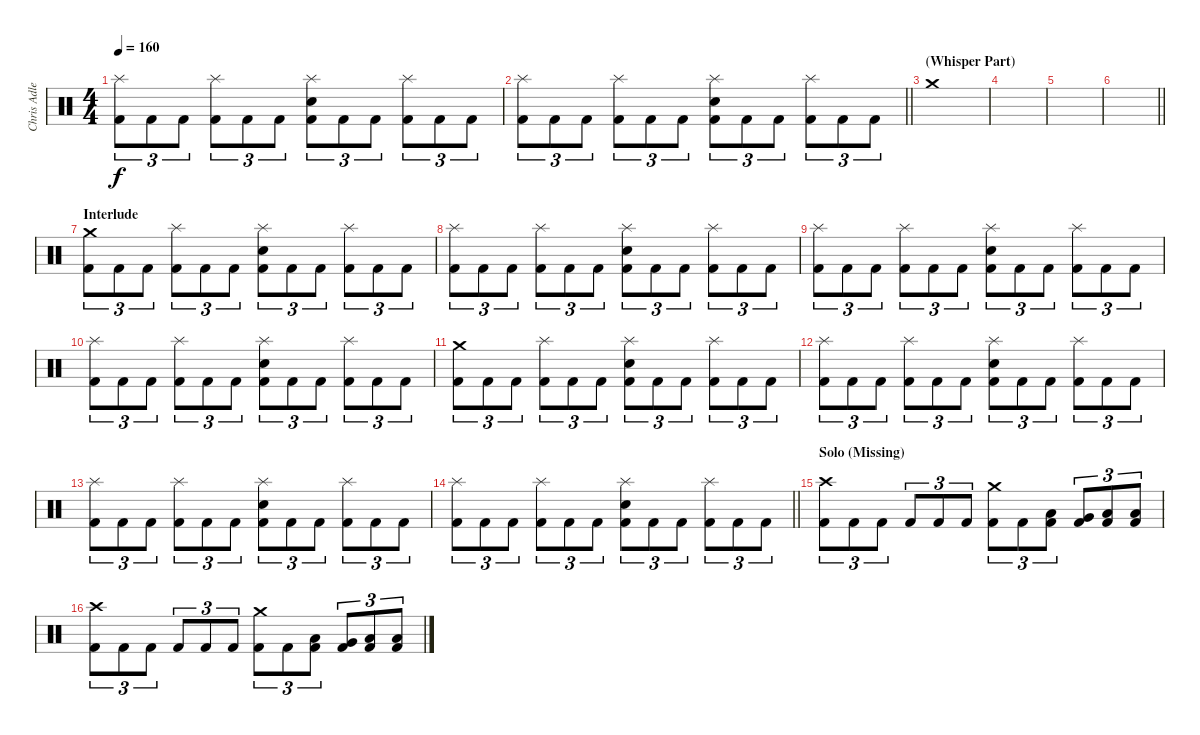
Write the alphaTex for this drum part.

\track ("Chris Adler" "Chris Adle") {instrument percussion}
\staff {score}
\articulation defaults
\ts (4 4)
\tempo 160
\clef neutral
\ks c
("Splash (hit)" "Kick (hit) 2").8{tu (3 2) dy f} "Kick (hit) 2".8{tu (3 2)} "Kick (hit) 2".8{tu (3 2)} ("Splash (hit)" "Kick (hit) 2").8{tu (3 2)} "Kick (hit) 2".8{tu (3 2)} "Kick (hit) 2".8{tu (3 2)} ("Splash (hit)" "Snare (hit) 2" "Kick (hit) 2").8{tu (3 2)} "Kick (hit) 2".8{tu (3 2)} "Kick (hit) 2".8{tu (3 2)} ("Splash (hit)" "Kick (hit) 2").8{tu (3 2)} "Kick (hit) 2".8{tu (3 2)} "Kick (hit) 2".8{tu (3 2)} |
\barLineRight lightlight
("Splash (hit)" "Kick (hit) 2").8{tu (3 2)} "Kick (hit) 2".8{tu (3 2)} "Kick (hit) 2".8{tu (3 2)} ("Splash (hit)" "Kick (hit) 2").8{tu (3 2)} "Kick (hit) 2".8{tu (3 2)} "Kick (hit) 2".8{tu (3 2)} ("Splash (hit)" "Snare (hit) 2" "Kick (hit) 2").8{tu (3 2)} "Kick (hit) 2".8{tu (3 2)} "Kick (hit) 2".8{tu (3 2)} ("Splash (hit)" "Kick (hit) 2").8{tu (3 2)} "Kick (hit) 2".8{tu (3 2)} "Kick (hit) 2".8{tu (3 2)} |
\section ("" "(Whisper Part)")
"Crash medium (hit)".1 |
|
|
\barLineRight lightlight
|
\section ("" "Interlude")
("Crash medium (hit)" "Kick (hit) 2").8{tu (3 2)} "Kick (hit) 2".8{tu (3 2)} "Kick (hit) 2".8{tu (3 2)} ("Splash (hit)" "Kick (hit) 2").8{tu (3 2)} "Kick (hit) 2".8{tu (3 2)} "Kick (hit) 2".8{tu (3 2)} ("Splash (hit)" "Snare (hit) 2" "Kick (hit) 2").8{tu (3 2)} "Kick (hit) 2".8{tu (3 2)} "Kick (hit) 2".8{tu (3 2)} ("Splash (hit)" "Kick (hit) 2").8{tu (3 2)} "Kick (hit) 2".8{tu (3 2)} "Kick (hit) 2".8{tu (3 2)} |
("Splash (hit)" "Kick (hit) 2").8{tu (3 2)} "Kick (hit) 2".8{tu (3 2)} "Kick (hit) 2".8{tu (3 2)} ("Splash (hit)" "Kick (hit) 2").8{tu (3 2)} "Kick (hit) 2".8{tu (3 2)} "Kick (hit) 2".8{tu (3 2)} ("Splash (hit)" "Snare (hit) 2" "Kick (hit) 2").8{tu (3 2)} "Kick (hit) 2".8{tu (3 2)} "Kick (hit) 2".8{tu (3 2)} ("Splash (hit)" "Kick (hit) 2").8{tu (3 2)} "Kick (hit) 2".8{tu (3 2)} "Kick (hit) 2".8{tu (3 2)} |
("Splash (hit)" "Kick (hit) 2").8{tu (3 2)} "Kick (hit) 2".8{tu (3 2)} "Kick (hit) 2".8{tu (3 2)} ("Splash (hit)" "Kick (hit) 2").8{tu (3 2)} "Kick (hit) 2".8{tu (3 2)} "Kick (hit) 2".8{tu (3 2)} ("Splash (hit)" "Snare (hit) 2" "Kick (hit) 2").8{tu (3 2)} "Kick (hit) 2".8{tu (3 2)} "Kick (hit) 2".8{tu (3 2)} ("Splash (hit)" "Kick (hit) 2").8{tu (3 2)} "Kick (hit) 2".8{tu (3 2)} "Kick (hit) 2".8{tu (3 2)} |
("Splash (hit)" "Kick (hit) 2").8{tu (3 2)} "Kick (hit) 2".8{tu (3 2)} "Kick (hit) 2".8{tu (3 2)} ("Splash (hit)" "Kick (hit) 2").8{tu (3 2)} "Kick (hit) 2".8{tu (3 2)} "Kick (hit) 2".8{tu (3 2)} ("Splash (hit)" "Snare (hit) 2" "Kick (hit) 2").8{tu (3 2)} "Kick (hit) 2".8{tu (3 2)} "Kick (hit) 2".8{tu (3 2)} ("Splash (hit)" "Kick (hit) 2").8{tu (3 2)} "Kick (hit) 2".8{tu (3 2)} "Kick (hit) 2".8{tu (3 2)} |
("Crash medium (hit)" "Kick (hit) 2").8{tu (3 2)} "Kick (hit) 2".8{tu (3 2)} "Kick (hit) 2".8{tu (3 2)} ("Splash (hit)" "Kick (hit) 2").8{tu (3 2)} "Kick (hit) 2".8{tu (3 2)} "Kick (hit) 2".8{tu (3 2)} ("Splash (hit)" "Snare (hit) 2" "Kick (hit) 2").8{tu (3 2)} "Kick (hit) 2".8{tu (3 2)} "Kick (hit) 2".8{tu (3 2)} ("Splash (hit)" "Kick (hit) 2").8{tu (3 2)} "Kick (hit) 2".8{tu (3 2)} "Kick (hit) 2".8{tu (3 2)} |
("Splash (hit)" "Kick (hit) 2").8{tu (3 2)} "Kick (hit) 2".8{tu (3 2)} "Kick (hit) 2".8{tu (3 2)} ("Splash (hit)" "Kick (hit) 2").8{tu (3 2)} "Kick (hit) 2".8{tu (3 2)} "Kick (hit) 2".8{tu (3 2)} ("Splash (hit)" "Snare (hit) 2" "Kick (hit) 2").8{tu (3 2)} "Kick (hit) 2".8{tu (3 2)} "Kick (hit) 2".8{tu (3 2)} ("Splash (hit)" "Kick (hit) 2").8{tu (3 2)} "Kick (hit) 2".8{tu (3 2)} "Kick (hit) 2".8{tu (3 2)} |
("Splash (hit)" "Kick (hit) 2").8{tu (3 2)} "Kick (hit) 2".8{tu (3 2)} "Kick (hit) 2".8{tu (3 2)} ("Splash (hit)" "Kick (hit) 2").8{tu (3 2)} "Kick (hit) 2".8{tu (3 2)} "Kick (hit) 2".8{tu (3 2)} ("Splash (hit)" "Snare (hit) 2" "Kick (hit) 2").8{tu (3 2)} "Kick (hit) 2".8{tu (3 2)} "Kick (hit) 2".8{tu (3 2)} ("Splash (hit)" "Kick (hit) 2").8{tu (3 2)} "Kick (hit) 2".8{tu (3 2)} "Kick (hit) 2".8{tu (3 2)} |
\barLineRight lightlight
("Splash (hit)" "Kick (hit) 2").8{tu (3 2)} "Kick (hit) 2".8{tu (3 2)} "Kick (hit) 2".8{tu (3 2)} ("Splash (hit)" "Kick (hit) 2").8{tu (3 2)} "Kick (hit) 2".8{tu (3 2)} "Kick (hit) 2".8{tu (3 2)} ("Splash (hit)" "Snare (hit) 2" "Kick (hit) 2").8{tu (3 2)} "Kick (hit) 2".8{tu (3 2)} "Kick (hit) 2".8{tu (3 2)} ("Splash (hit)" "Kick (hit) 2").8{tu (3 2)} "Kick (hit) 2".8{tu (3 2)} "Kick (hit) 2".8{tu (3 2)} |
\section ("" "Solo (Missing)")
("Crash high (hit)" "Kick (hit) 2").8{tu (3 2)} "Kick (hit) 2".8{tu (3 2)} "Kick (hit) 2".8{tu (3 2)} "Kick (hit) 2".8{tu (3 2)} "Kick (hit) 2".8{tu (3 2)} "Kick (hit) 2".8{tu (3 2)} ("Crash medium (hit)" "Kick (hit) 2").8{tu (3 2)} "Kick (hit) 2".8{tu (3 2)} ("Low Tom (hit)" "Kick (hit) 2").8{tu (3 2)} ("Very Low Tom (hit)" "Kick (hit) 2").8{tu (3 2)} ("Low Floor Tom (hit)" "Kick (hit) 2").8{tu (3 2)} ("Low Floor Tom (hit)" "Kick (hit) 2").8{tu (3 2)} |
("Crash high (hit)" "Kick (hit) 2").8{tu (3 2)} "Kick (hit) 2".8{tu (3 2)} "Kick (hit) 2".8{tu (3 2)} "Kick (hit) 2".8{tu (3 2)} "Kick (hit) 2".8{tu (3 2)} "Kick (hit) 2".8{tu (3 2)} ("Crash medium (hit)" "Kick (hit) 2").8{tu (3 2)} "Kick (hit) 2".8{tu (3 2)} ("Low Tom (hit)" "Kick (hit) 2").8{tu (3 2)} ("Very Low Tom (hit)" "Kick (hit) 2").8{tu (3 2)} ("Low Floor Tom (hit)" "Kick (hit) 2").8{tu (3 2)} ("Low Floor Tom (hit)" "Kick (hit) 2").8{tu (3 2)}
